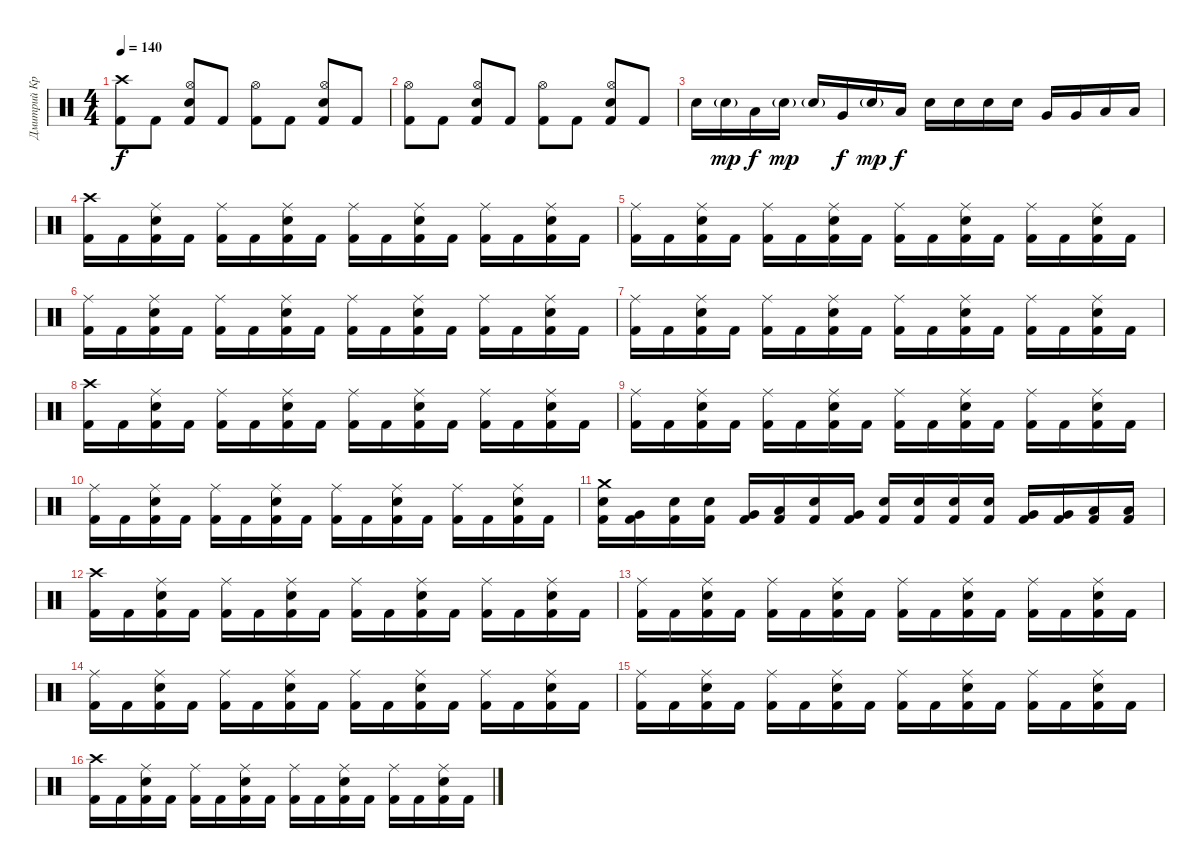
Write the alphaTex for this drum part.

\track ("Дмитрий Кривенков" "Дмитрий Кр") {instrument percussion}
\staff {score}
\articulation defaults
\ts (4 4)
\tempo 140
\clef neutral
\ks c
("Crash high (hit)" "Kick (hit) 2").8{dy f} "Kick (hit) 2".8 ("Hi-Hat (open)" "Electric Snare (hit)" "Kick (hit) 2").8 "Kick (hit) 2".8 ("Hi-Hat (open)" "Kick (hit) 2").8 "Kick (hit) 2".8 ("Hi-Hat (open)" "Electric Snare (hit)" "Kick (hit) 2").8 "Kick (hit) 2".8 |
("Hi-Hat (open)" "Kick (hit) 2").8 "Kick (hit) 2".8 ("Hi-Hat (open)" "Electric Snare (hit)" "Kick (hit) 2").8 "Kick (hit) 2".8 ("Hi-Hat (open)" "Kick (hit) 2").8 "Kick (hit) 2".8 ("Hi-Hat (open)" "Electric Snare (hit)" "Kick (hit) 2").8 "Kick (hit) 2".8 |
"Electric Snare (hit)".16 "Electric Snare (hit)"{g}.16{dy mp} "Low Tom (hit)".16{dy f} "Electric Snare (hit)"{g}.16{dy mp} "Electric Snare (hit)"{g}.16 "Very Low Tom (hit)".16{dy f} "Electric Snare (hit)"{g}.16{dy mp} "Low Floor Tom (hit)".16{dy f} "Electric Snare (hit)".16 "Electric Snare (hit)".16 "Electric Snare (hit)".16 "Electric Snare (hit)".16 "Very Low Tom (hit)".16 "Very Low Tom (hit)".16 "Low Floor Tom (hit)".16 "Low Floor Tom (hit)".16 |
("Crash high (hit)" "Kick (hit) 2").16 "Kick (hit) 2".16 ("Ride (middle)" "Electric Snare (hit)" "Kick (hit) 2").16 "Kick (hit) 2".16 ("Ride (middle)" "Kick (hit) 2").16 "Kick (hit) 2".16 ("Ride (middle)" "Electric Snare (hit)" "Kick (hit) 2").16 "Kick (hit) 2".16 ("Ride (middle)" "Kick (hit) 2").16 "Kick (hit) 2".16 ("Ride (middle)" "Electric Snare (hit)" "Kick (hit) 2").16 "Kick (hit) 2".16 ("Ride (middle)" "Kick (hit) 2").16 "Kick (hit) 2".16 ("Ride (middle)" "Electric Snare (hit)" "Kick (hit) 2").16 "Kick (hit) 2".16 |
("Ride (middle)" "Kick (hit) 2").16 "Kick (hit) 2".16 ("Ride (middle)" "Electric Snare (hit)" "Kick (hit) 2").16 "Kick (hit) 2".16 ("Ride (middle)" "Kick (hit) 2").16 "Kick (hit) 2".16 ("Ride (middle)" "Electric Snare (hit)" "Kick (hit) 2").16 "Kick (hit) 2".16 ("Ride (middle)" "Kick (hit) 2").16 "Kick (hit) 2".16 ("Ride (middle)" "Electric Snare (hit)" "Kick (hit) 2").16 "Kick (hit) 2".16 ("Ride (middle)" "Kick (hit) 2").16 "Kick (hit) 2".16 ("Ride (middle)" "Electric Snare (hit)" "Kick (hit) 2").16 "Kick (hit) 2".16 |
("Ride (middle)" "Kick (hit) 2").16 "Kick (hit) 2".16 ("Ride (middle)" "Electric Snare (hit)" "Kick (hit) 2").16 "Kick (hit) 2".16 ("Ride (middle)" "Kick (hit) 2").16 "Kick (hit) 2".16 ("Ride (middle)" "Electric Snare (hit)" "Kick (hit) 2").16 "Kick (hit) 2".16 ("Ride (middle)" "Kick (hit) 2").16 "Kick (hit) 2".16 ("Ride (middle)" "Electric Snare (hit)" "Kick (hit) 2").16 "Kick (hit) 2".16 ("Ride (middle)" "Kick (hit) 2").16 "Kick (hit) 2".16 ("Ride (middle)" "Electric Snare (hit)" "Kick (hit) 2").16 "Kick (hit) 2".16 |
("Ride (middle)" "Kick (hit) 2").16 "Kick (hit) 2".16 ("Ride (middle)" "Electric Snare (hit)" "Kick (hit) 2").16 "Kick (hit) 2".16 ("Ride (middle)" "Kick (hit) 2").16 "Kick (hit) 2".16 ("Ride (middle)" "Electric Snare (hit)" "Kick (hit) 2").16 "Kick (hit) 2".16 ("Ride (middle)" "Kick (hit) 2").16 "Kick (hit) 2".16 ("Ride (middle)" "Electric Snare (hit)" "Kick (hit) 2").16 "Kick (hit) 2".16 ("Ride (middle)" "Kick (hit) 2").16 "Kick (hit) 2".16 ("Ride (middle)" "Electric Snare (hit)" "Kick (hit) 2").16 "Kick (hit) 2".16 |
("Crash high (hit)" "Kick (hit) 2").16 "Kick (hit) 2".16 ("Ride (middle)" "Electric Snare (hit)" "Kick (hit) 2").16 "Kick (hit) 2".16 ("Ride (middle)" "Kick (hit) 2").16 "Kick (hit) 2".16 ("Ride (middle)" "Electric Snare (hit)" "Kick (hit) 2").16 "Kick (hit) 2".16 ("Ride (middle)" "Kick (hit) 2").16 "Kick (hit) 2".16 ("Ride (middle)" "Electric Snare (hit)" "Kick (hit) 2").16 "Kick (hit) 2".16 ("Ride (middle)" "Kick (hit) 2").16 "Kick (hit) 2".16 ("Ride (middle)" "Electric Snare (hit)" "Kick (hit) 2").16 "Kick (hit) 2".16 |
("Ride (middle)" "Kick (hit) 2").16 "Kick (hit) 2".16 ("Ride (middle)" "Electric Snare (hit)" "Kick (hit) 2").16 "Kick (hit) 2".16 ("Ride (middle)" "Kick (hit) 2").16 "Kick (hit) 2".16 ("Ride (middle)" "Electric Snare (hit)" "Kick (hit) 2").16 "Kick (hit) 2".16 ("Ride (middle)" "Kick (hit) 2").16 "Kick (hit) 2".16 ("Ride (middle)" "Electric Snare (hit)" "Kick (hit) 2").16 "Kick (hit) 2".16 ("Ride (middle)" "Kick (hit) 2").16 "Kick (hit) 2".16 ("Ride (middle)" "Electric Snare (hit)" "Kick (hit) 2").16 "Kick (hit) 2".16 |
("Ride (middle)" "Kick (hit) 2").16 "Kick (hit) 2".16 ("Ride (middle)" "Electric Snare (hit)" "Kick (hit) 2").16 "Kick (hit) 2".16 ("Ride (middle)" "Kick (hit) 2").16 "Kick (hit) 2".16 ("Ride (middle)" "Electric Snare (hit)" "Kick (hit) 2").16 "Kick (hit) 2".16 ("Ride (middle)" "Kick (hit) 2").16 "Kick (hit) 2".16 ("Ride (middle)" "Electric Snare (hit)" "Kick (hit) 2").16 "Kick (hit) 2".16 ("Ride (middle)" "Kick (hit) 2").16 "Kick (hit) 2".16 ("Ride (middle)" "Electric Snare (hit)" "Kick (hit) 2").16 "Kick (hit) 2".16 |
("Crash medium (hit)" "Electric Snare (hit)" "Kick (hit) 2").16 ("Very Low Tom (hit)" "Kick (hit) 2").16 ("Electric Snare (hit)" "Kick (hit) 2").16 ("Electric Snare (hit)" "Kick (hit) 2").16 ("Very Low Tom (hit)" "Kick (hit) 2").16 ("Low Floor Tom (hit)" "Kick (hit) 2").16 ("Electric Snare (hit)" "Kick (hit) 2").16 ("Very Low Tom (hit)" "Kick (hit) 2").16 ("Electric Snare (hit)" "Kick (hit) 2").16 ("Electric Snare (hit)" "Kick (hit) 2").16 ("Electric Snare (hit)" "Kick (hit) 2").16 ("Electric Snare (hit)" "Kick (hit) 2").16 ("Very Low Tom (hit)" "Kick (hit) 2").16 ("Very Low Tom (hit)" "Kick (hit) 2").16 ("Low Floor Tom (hit)" "Kick (hit) 2").16 ("Low Floor Tom (hit)" "Kick (hit) 2").16 |
("Crash high (hit)" "Kick (hit) 2").16 "Kick (hit) 2".16 ("Ride (middle)" "Electric Snare (hit)" "Kick (hit) 2").16 "Kick (hit) 2".16 ("Ride (middle)" "Kick (hit) 2").16 "Kick (hit) 2".16 ("Ride (middle)" "Electric Snare (hit)" "Kick (hit) 2").16 "Kick (hit) 2".16 ("Ride (middle)" "Kick (hit) 2").16 "Kick (hit) 2".16 ("Ride (middle)" "Electric Snare (hit)" "Kick (hit) 2").16 "Kick (hit) 2".16 ("Ride (middle)" "Kick (hit) 2").16 "Kick (hit) 2".16 ("Ride (middle)" "Electric Snare (hit)" "Kick (hit) 2").16 "Kick (hit) 2".16 |
("Ride (middle)" "Kick (hit) 2").16 "Kick (hit) 2".16 ("Ride (middle)" "Electric Snare (hit)" "Kick (hit) 2").16 "Kick (hit) 2".16 ("Ride (middle)" "Kick (hit) 2").16 "Kick (hit) 2".16 ("Ride (middle)" "Electric Snare (hit)" "Kick (hit) 2").16 "Kick (hit) 2".16 ("Ride (middle)" "Kick (hit) 2").16 "Kick (hit) 2".16 ("Ride (middle)" "Electric Snare (hit)" "Kick (hit) 2").16 "Kick (hit) 2".16 ("Ride (middle)" "Kick (hit) 2").16 "Kick (hit) 2".16 ("Ride (middle)" "Electric Snare (hit)" "Kick (hit) 2").16 "Kick (hit) 2".16 |
("Ride (middle)" "Kick (hit) 2").16 "Kick (hit) 2".16 ("Ride (middle)" "Electric Snare (hit)" "Kick (hit) 2").16 "Kick (hit) 2".16 ("Ride (middle)" "Kick (hit) 2").16 "Kick (hit) 2".16 ("Ride (middle)" "Electric Snare (hit)" "Kick (hit) 2").16 "Kick (hit) 2".16 ("Ride (middle)" "Kick (hit) 2").16 "Kick (hit) 2".16 ("Ride (middle)" "Electric Snare (hit)" "Kick (hit) 2").16 "Kick (hit) 2".16 ("Ride (middle)" "Kick (hit) 2").16 "Kick (hit) 2".16 ("Ride (middle)" "Electric Snare (hit)" "Kick (hit) 2").16 "Kick (hit) 2".16 |
("Ride (middle)" "Kick (hit) 2").16 "Kick (hit) 2".16 ("Ride (middle)" "Electric Snare (hit)" "Kick (hit) 2").16 "Kick (hit) 2".16 ("Ride (middle)" "Kick (hit) 2").16 "Kick (hit) 2".16 ("Ride (middle)" "Electric Snare (hit)" "Kick (hit) 2").16 "Kick (hit) 2".16 ("Ride (middle)" "Kick (hit) 2").16 "Kick (hit) 2".16 ("Ride (middle)" "Electric Snare (hit)" "Kick (hit) 2").16 "Kick (hit) 2".16 ("Ride (middle)" "Kick (hit) 2").16 "Kick (hit) 2".16 ("Ride (middle)" "Electric Snare (hit)" "Kick (hit) 2").16 "Kick (hit) 2".16 |
("Crash high (hit)" "Kick (hit) 2").16 "Kick (hit) 2".16 ("Ride (middle)" "Electric Snare (hit)" "Kick (hit) 2").16 "Kick (hit) 2".16 ("Ride (middle)" "Kick (hit) 2").16 "Kick (hit) 2".16 ("Ride (middle)" "Electric Snare (hit)" "Kick (hit) 2").16 "Kick (hit) 2".16 ("Ride (middle)" "Kick (hit) 2").16 "Kick (hit) 2".16 ("Ride (middle)" "Electric Snare (hit)" "Kick (hit) 2").16 "Kick (hit) 2".16 ("Ride (middle)" "Kick (hit) 2").16 "Kick (hit) 2".16 ("Ride (middle)" "Electric Snare (hit)" "Kick (hit) 2").16 "Kick (hit) 2".16
